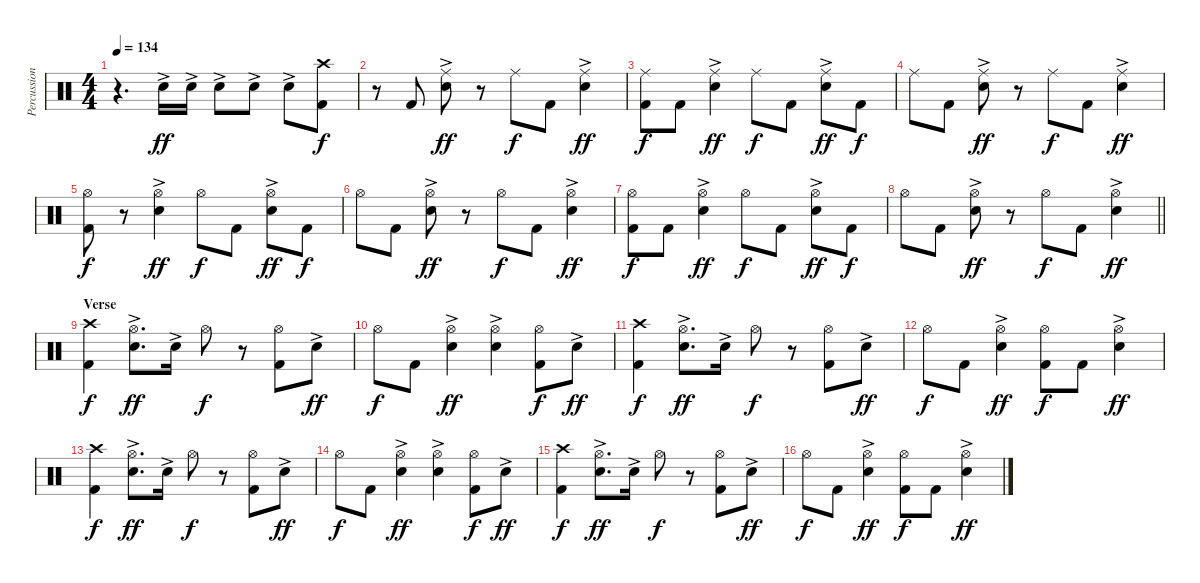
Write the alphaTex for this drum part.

\track ("Percussion" "Percussion") {instrument percussion}
\staff {score}
\articulation defaults
\ts (4 4)
\tempo 134
\clef neutral
\ks c
r.4{d dy f} "Electric Snare (hit)"{ac}.16{dy ff} "Electric Snare (hit)"{ac}.16 "Electric Snare (hit)"{ac}.8 "Electric Snare (hit)"{ac}.8 "Electric Snare (hit)"{ac}.8 ("Crash high (hit)" "Kick (hit) 2").8{dy f} |
r.8 "Kick (hit) 2".8 ("Ride (middle)" "Electric Snare (hit)"{ac}).8{dy ff} r.8 "Ride (middle)".8{dy f} "Kick (hit) 2".8 ("Ride (middle)" "Electric Snare (hit)"{ac}).4{dy ff} |
("Ride (middle)" "Kick (hit) 2").8{dy f} "Kick (hit) 2".8 ("Ride (middle)" "Electric Snare (hit)"{ac}).4{dy ff} "Ride (middle)".8{dy f} "Kick (hit) 2".8 ("Ride (middle)" "Electric Snare (hit)"{ac}).8{dy ff} "Kick (hit) 2".8{dy f} |
"Ride (middle)".8 "Kick (hit) 2".8 ("Ride (middle)" "Electric Snare (hit)"{ac}).8{dy ff} r.8 "Ride (middle)".8{dy f} "Kick (hit) 2".8 ("Ride (middle)" "Electric Snare (hit)"{ac}).4{dy ff} |
("Hi-Hat (open)" "Kick (hit) 2").8{dy f} r.8 ("Hi-Hat (open)" "Electric Snare (hit)"{ac}).4{dy ff} "Hi-Hat (open)".8{dy f} "Kick (hit) 2".8 ("Hi-Hat (open)" "Electric Snare (hit)"{ac}).8{dy ff} "Kick (hit) 2".8{dy f} |
"Hi-Hat (open)".8 "Kick (hit) 2".8 ("Hi-Hat (open)" "Electric Snare (hit)"{ac}).8{dy ff} r.8 "Hi-Hat (open)".8{dy f} "Kick (hit) 2".8 ("Hi-Hat (open)" "Electric Snare (hit)"{ac}).4{dy ff} |
("Hi-Hat (open)" "Kick (hit) 2").8{dy f} "Kick (hit) 2".8 ("Hi-Hat (open)" "Electric Snare (hit)"{ac}).4{dy ff} "Hi-Hat (open)".8{dy f} "Kick (hit) 2".8 ("Hi-Hat (open)" "Electric Snare (hit)"{ac}).8{dy ff} "Kick (hit) 2".8{dy f} |
\barLineRight lightlight "Hi-Hat (open)".8 "Kick (hit) 2".8
("Hi-Hat (open)" "Electric Snare (hit)"{ac}).8{dy ff} r.8 "Hi-Hat (open)".8{dy f} "Kick (hit) 2".8 ("Hi-Hat (open)" "Electric Snare (hit)"{ac}).4{dy ff} |
\section ("" "Verse")
("Crash high (hit)" "Kick (hit) 2").4{dy f} ("Hi-Hat (open)" "Electric Snare (hit)"{ac}).8{d dy ff} "Electric Snare (hit)"{ac}.16 "Hi-Hat (open)".8{dy f} r.8 ("Hi-Hat (open)" "Kick (hit) 2").8 "Electric Snare (hit)"{ac}.8{dy ff} |
"Hi-Hat (open)".8{dy f} "Kick (hit) 2".8 ("Hi-Hat (open)" "Electric Snare (hit)"{ac}).4{dy ff} ("Hi-Hat (open)" "Electric Snare (hit)"{ac}).4 ("Hi-Hat (open)" "Kick (hit) 2").8{dy f} "Electric Snare (hit)"{ac}.8{dy ff} |
("Crash high (hit)" "Kick (hit) 2").4{dy f} ("Hi-Hat (open)" "Electric Snare (hit)"{ac}).8{d dy ff} "Electric Snare (hit)"{ac}.16 "Hi-Hat (open)".8{dy f} r.8 ("Hi-Hat (open)" "Kick (hit) 2").8 "Electric Snare (hit)"{ac}.8{dy ff} |
"Hi-Hat (open)".8{dy f} "Kick (hit) 2".8 ("Hi-Hat (open)" "Electric Snare (hit)"{ac}).4{dy ff} ("Hi-Hat (open)" "Kick (hit) 2").8{dy f} "Kick (hit) 2".8 ("Hi-Hat (open)" "Electric Snare (hit)"{ac}).4{dy ff} |
("Crash high (hit)" "Kick (hit) 2").4{dy f} ("Hi-Hat (open)" "Electric Snare (hit)"{ac}).8{d dy ff} "Electric Snare (hit)"{ac}.16 "Hi-Hat (open)".8{dy f} r.8 ("Hi-Hat (open)" "Kick (hit) 2").8 "Electric Snare (hit)"{ac}.8{dy ff} |
"Hi-Hat (open)".8{dy f} "Kick (hit) 2".8 ("Hi-Hat (open)" "Electric Snare (hit)"{ac}).4{dy ff} ("Hi-Hat (open)" "Electric Snare (hit)"{ac}).4 ("Hi-Hat (open)" "Kick (hit) 2").8{dy f} "Electric Snare (hit)"{ac}.8{dy ff} |
("Crash high (hit)" "Kick (hit) 2").4{dy f} ("Hi-Hat (open)" "Electric Snare (hit)"{ac}).8{d dy ff} "Electric Snare (hit)"{ac}.16 "Hi-Hat (open)".8{dy f} r.8 ("Hi-Hat (open)" "Kick (hit) 2").8 "Electric Snare (hit)"{ac}.8{dy ff} |
"Hi-Hat (open)".8{dy f} "Kick (hit) 2".8 ("Hi-Hat (open)" "Electric Snare (hit)"{ac}).4{dy ff} ("Hi-Hat (open)" "Kick (hit) 2").8{dy f} "Kick (hit) 2".8 ("Hi-Hat (open)" "Electric Snare (hit)"{ac}).4{dy ff}
